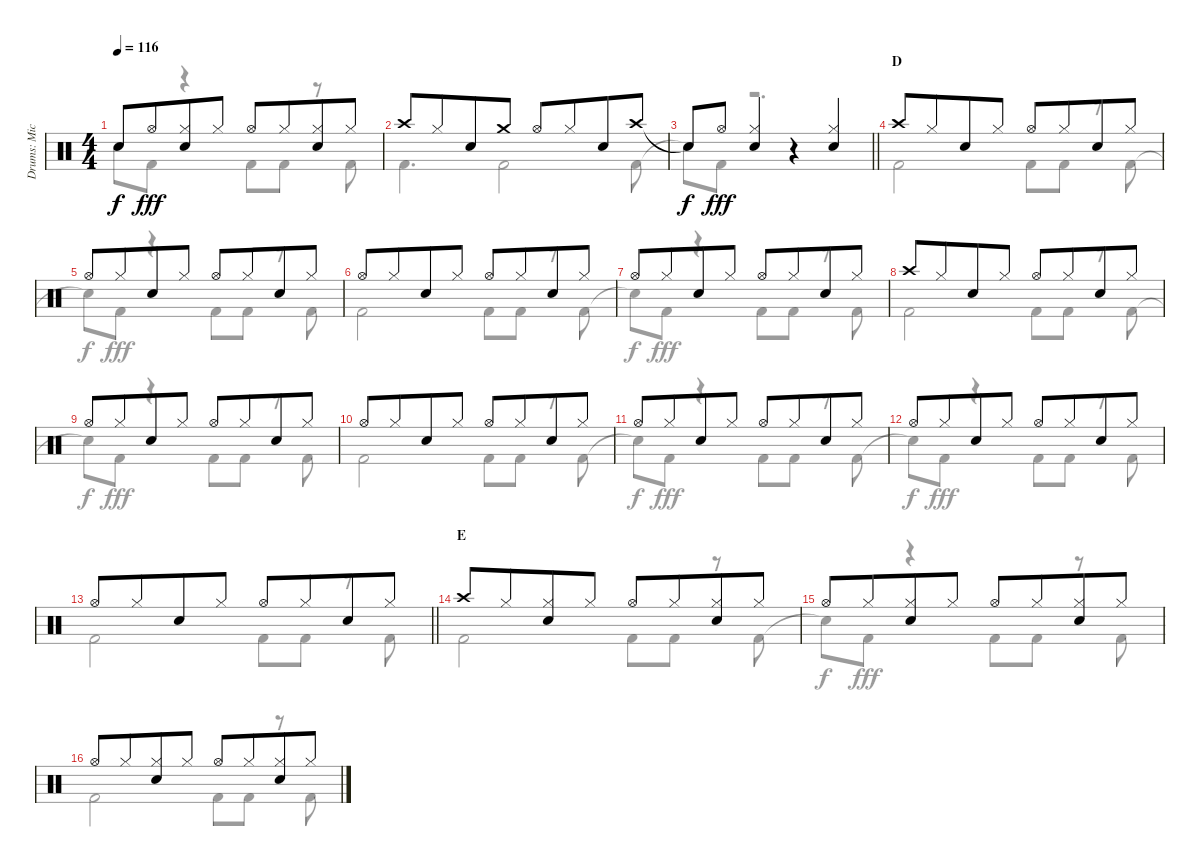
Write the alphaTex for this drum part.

\track ("Drums: Mick" "Drums: Mic") {instrument percussion}
\staff {score}
\articulation defaults
\voice
\ts (4 4)
\tempo 116
\clef neutral
\ks c "Snare (hit)"{t}.8{dy f} "Hi-Hat (open)".8{dy fff beam merge}
("Hi-Hat (closed)" "Snare (hit) 2").8 "Hi-Hat (closed)".8 "Hi-Hat (open)".8 "Hi-Hat (closed)".8{beam merge} ("Hi-Hat (closed)" "Snare (hit) 2").8 "Hi-Hat (closed)".8 |
"Crash high (hit)".8 "Hi-Hat (closed)".8{beam merge} "Snare (hit) 2".8 "Crash medium (hit)".8 "Hi-Hat (open)".8 "Hi-Hat (closed)".8{beam merge} "Snare (hit) 2".8 "Crash high (hit)".8 |
\barLineRight lightlight "Snare (hit)"{t}.8{dy f} "Hi-Hat (open)".8{dy fff beam merge}
("Hi-Hat (closed)" "Snare (hit) 2").4 r.4{beam merge} ("Hi-Hat (closed)" "Snare (hit) 2").4 |
\section ("" "D")
"Crash high (hit)".8 "Hi-Hat (closed)".8{beam merge} "Snare (hit) 2".8 "Hi-Hat (closed)".8 "Hi-Hat (open)".8 "Hi-Hat (closed)".8{beam merge} "Snare (hit) 2".8 "Hi-Hat (closed)".8 |
"Hi-Hat (open)".8 "Hi-Hat (closed)".8{beam merge} "Snare (hit) 2".8 "Hi-Hat (closed)".8 "Hi-Hat (open)".8 "Hi-Hat (closed)".8{beam merge} "Snare (hit) 2".8 "Hi-Hat (closed)".8 |
"Hi-Hat (open)".8 "Hi-Hat (closed)".8{beam merge} "Snare (hit) 2".8 "Hi-Hat (closed)".8 "Hi-Hat (open)".8 "Hi-Hat (closed)".8{beam merge} "Snare (hit) 2".8 "Hi-Hat (closed)".8 |
"Hi-Hat (open)".8 "Hi-Hat (closed)".8{beam merge} "Snare (hit) 2".8 "Hi-Hat (closed)".8 "Hi-Hat (open)".8 "Hi-Hat (closed)".8{beam merge} "Snare (hit) 2".8 "Hi-Hat (closed)".8 |
"Crash high (hit)".8 "Hi-Hat (closed)".8{beam merge} "Snare (hit) 2".8 "Hi-Hat (closed)".8 "Hi-Hat (open)".8 "Hi-Hat (closed)".8{beam merge} "Snare (hit) 2".8 "Hi-Hat (closed)".8 |
"Hi-Hat (open)".8 "Hi-Hat (closed)".8{beam merge} "Snare (hit) 2".8 "Hi-Hat (closed)".8 "Hi-Hat (open)".8 "Hi-Hat (closed)".8{beam merge} "Snare (hit) 2".8 "Hi-Hat (closed)".8 |
"Hi-Hat (open)".8 "Hi-Hat (closed)".8{beam merge} "Snare (hit) 2".8 "Hi-Hat (closed)".8 "Hi-Hat (open)".8 "Hi-Hat (closed)".8{beam merge} "Snare (hit) 2".8 "Hi-Hat (closed)".8 |
"Hi-Hat (open)".8 "Hi-Hat (closed)".8{beam merge} "Snare (hit) 2".8 "Hi-Hat (closed)".8 "Hi-Hat (open)".8 "Hi-Hat (closed)".8{beam merge} "Snare (hit) 2".8 "Hi-Hat (closed)".8 |
"Hi-Hat (open)".8 "Hi-Hat (closed)".8{beam merge} "Snare (hit) 2".8 "Hi-Hat (closed)".8 "Hi-Hat (open)".8 "Hi-Hat (closed)".8{beam merge} "Snare (hit) 2".8 "Hi-Hat (closed)".8 |
\barLineRight lightlight "Hi-Hat (open)".8 "Hi-Hat (closed)".8{beam merge} "Snare (hit) 2".8 "Hi-Hat (closed)".8 "Hi-Hat (open)".8 "Hi-Hat (closed)".8{beam merge} "Snare (hit) 2".8 "Hi-Hat (closed)".8
|
\section ("" "E")
"Crash high (hit)".8 "Hi-Hat (closed)".8{beam merge} ("Hi-Hat (closed)" "Snare (hit) 2").8 "Hi-Hat (closed)".8 "Hi-Hat (open)".8 "Hi-Hat (closed)".8{beam merge} ("Hi-Hat (closed)" "Snare (hit) 2").8 "Hi-Hat (closed)".8 |
"Hi-Hat (open)".8 "Hi-Hat (closed)".8{beam merge} ("Hi-Hat (closed)" "Snare (hit) 2").8 "Hi-Hat (closed)".8 "Hi-Hat (open)".8 "Hi-Hat (closed)".8{beam merge} ("Hi-Hat (closed)" "Snare (hit) 2").8 "Hi-Hat (closed)".8 |
"Hi-Hat (open)".8 "Hi-Hat (closed)".8{beam merge} ("Hi-Hat (closed)" "Snare (hit) 2").8 "Hi-Hat (closed)".8 "Hi-Hat (open)".8 "Hi-Hat (closed)".8{beam merge} ("Hi-Hat (closed)" "Snare (hit) 2").8 "Hi-Hat (closed)".8
\voice
\clef neutral
\ottava regular
\simile none
\ks c "Snare (hit)"{t}.8{dy f} "Kick (hit) 2".8{dy fff}
r.4 "Kick (hit) 2".8 "Kick (hit) 2".8 r.8 "Kick (hit) 2".8 |
"Kick (hit) 2".4{d} "Kick (hit) 2".2 "Kick (hit) 2".8 |
\barLineRight lightlight "Snare (hit)"{t}.8{dy f} "Kick (hit) 2".8{dy fff}
r.2{d} |
"Kick (hit) 2".2 "Kick (hit) 2".8 "Kick (hit) 2".8 r.8 "Kick (hit) 2".8 |
"Snare (hit)"{t}.8{dy f} "Kick (hit) 2".8{dy fff} r.4 "Kick (hit) 2".8 "Kick (hit) 2".8 r.8 "Kick (hit) 2".8 |
"Kick (hit) 2".2 "Kick (hit) 2".8 "Kick (hit) 2".8 r.8 "Kick (hit) 2".8 |
"Snare (hit)"{t}.8{dy f} "Kick (hit) 2".8{dy fff} r.4 "Kick (hit) 2".8 "Kick (hit) 2".8 r.8 "Kick (hit) 2".8 |
"Kick (hit) 2".2 "Kick (hit) 2".8 "Kick (hit) 2".8 r.8 "Kick (hit) 2".8 |
"Snare (hit)"{t}.8{dy f} "Kick (hit) 2".8{dy fff} r.4 "Kick (hit) 2".8 "Kick (hit) 2".8 r.8 "Kick (hit) 2".8 |
"Kick (hit) 2".2 "Kick (hit) 2".8 "Kick (hit) 2".8 r.8 "Kick (hit) 2".8 |
"Snare (hit)"{t}.8{dy f} "Kick (hit) 2".8{dy fff} r.4 "Kick (hit) 2".8 "Kick (hit) 2".8 r.8 "Kick (hit) 2".8 |
"Snare (hit)"{t}.8{dy f} "Kick (hit) 2".8{dy fff} r.4 "Kick (hit) 2".8 "Kick (hit) 2".8 r.8 "Kick (hit) 2".8 |
\barLineRight lightlight "Kick (hit) 2".2 "Kick (hit) 2".8 "Kick (hit) 2".8
r.8 "Kick (hit) 2".8 |
"Kick (hit) 2".2 "Kick (hit) 2".8 "Kick (hit) 2".8 r.8 "Kick (hit) 2".8 |
"Snare (hit)"{t}.8{dy f} "Kick (hit) 2".8{dy fff} r.4 "Kick (hit) 2".8 "Kick (hit) 2".8 r.8 "Kick (hit) 2".8 |
"Kick (hit) 2".2 "Kick (hit) 2".8 "Kick (hit) 2".8 r.8 "Kick (hit) 2".8
